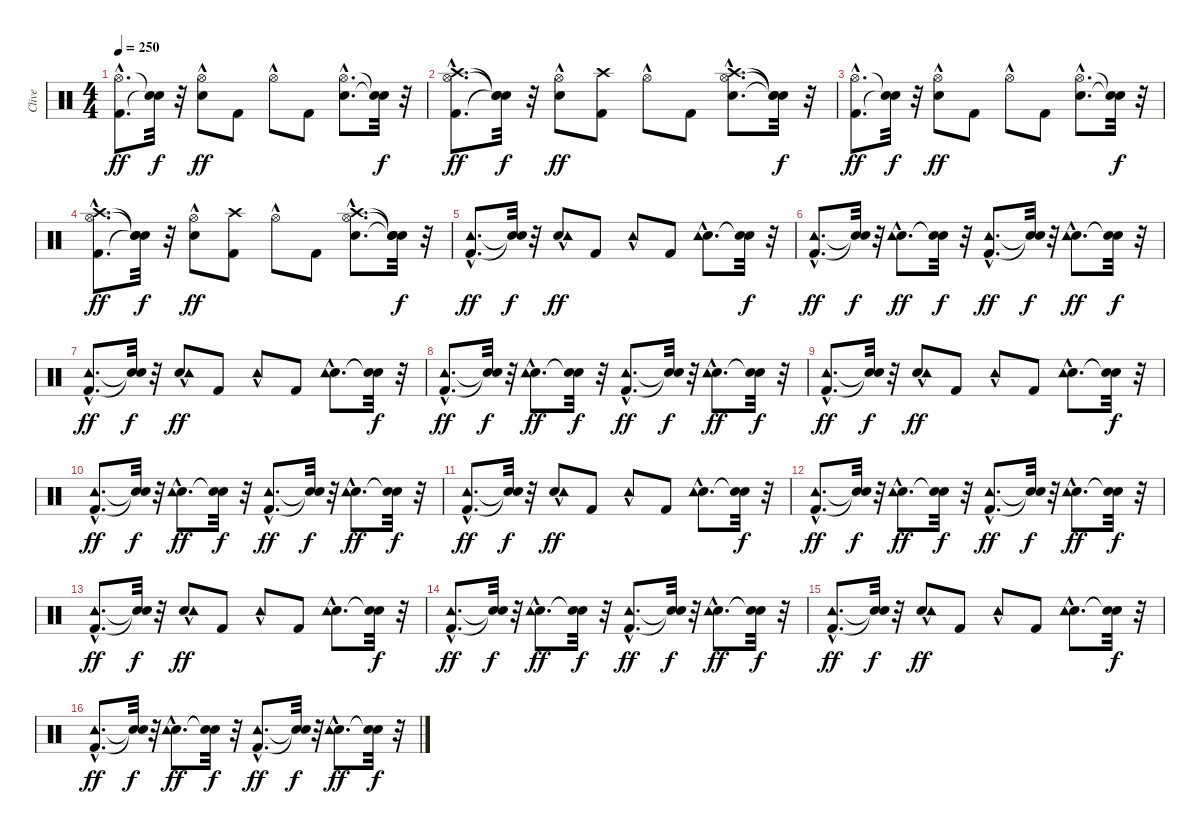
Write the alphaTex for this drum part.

\track ("Clive" "Clive") {instrument percussion}
\staff {score}
\articulation defaults
\ts (4 4)
\tempo 250
\clef neutral
\ks c
("Kick (hit) 2"{hac} "Hi-Hat (open)"{hac}).8{d dy ff} ("Snare (hit)"{t} "Snare (hit)"{t}).32{dy f} r.32 ("Snare (hit) 2" "Hi-Hat (open)"{hac}).8{dy ff} "Kick (hit) 2".8 "Hi-Hat (open)"{hac}.8 "Kick (hit) 2".8 ("Snare (hit) 2"{hac} "Hi-Hat (open)"{hac}).8{d} ("Snare (hit)"{t} "Snare (hit)"{t}).32{dy f} r.32 |
("Kick (hit) 2"{hac} "Hi-Hat (open)"{hac} "Crash high (hit)"{hac}).8{d dy ff} ("Snare (hit)"{t} "Snare (hit)"{t} "Snare (hit)"{t}).32{dy f} r.32 ("Snare (hit) 2" "Hi-Hat (open)"{hac}).8{dy ff} ("Kick (hit) 2" "Crash high (hit)").8 "Hi-Hat (open)"{hac}.8 "Kick (hit) 2".8 ("Snare (hit) 2"{hac} "Hi-Hat (open)"{hac} "Crash high (hit)"{hac}).8{d} ("Snare (hit)"{t} "Snare (hit)"{t} "Snare (hit)"{t}).32{dy f} r.32 |
("Kick (hit) 2"{hac} "Hi-Hat (open)"{hac}).8{d dy ff} ("Snare (hit)"{t} "Snare (hit)"{t}).32{dy f} r.32 ("Snare (hit) 2" "Hi-Hat (open)"{hac}).8{dy ff} "Kick (hit) 2".8 "Hi-Hat (open)"{hac}.8 "Kick (hit) 2".8 ("Snare (hit) 2"{hac} "Hi-Hat (open)"{hac}).8{d} ("Snare (hit)"{t} "Snare (hit)"{t}).32{dy f} r.32 |
("Kick (hit) 2"{hac} "Hi-Hat (open)"{hac} "Crash high (hit)"{hac}).8{d dy ff} ("Snare (hit)"{t} "Snare (hit)"{t} "Snare (hit)"{t}).32{dy f} r.32 ("Snare (hit) 2" "Hi-Hat (open)"{hac}).8{dy ff} ("Kick (hit) 2" "Crash high (hit)").8 "Hi-Hat (open)"{hac}.8 "Kick (hit) 2".8 ("Snare (hit) 2"{hac} "Hi-Hat (open)"{hac} "Crash high (hit)"{hac}).8{d} ("Snare (hit)"{t} "Snare (hit)"{t} "Snare (hit)"{t}).32{dy f} r.32 |
("Kick (hit) 2"{hac} "Tambourine (hit)"{hac}).8{d dy ff} ("Snare (hit)"{t} "Snare (hit)"{t}).32{dy f} r.32 ("Snare (hit) 2" "Tambourine (hit)"{hac}).8{dy ff} "Kick (hit) 2".8 "Tambourine (hit)"{hac}.8 "Kick (hit) 2".8 ("Snare (hit) 2"{hac} "Tambourine (hit)"{hac}).8{d} ("Snare (hit)"{t} "Snare (hit)"{t}).32{dy f} r.32 |
("Kick (hit) 2"{hac} "Tambourine (hit)"{hac}).8{d dy ff} ("Snare (hit)"{t} "Snare (hit)"{t}).32{dy f} r.32 ("Snare (hit) 2"{hac} "Tambourine (hit)"{hac}).8{d dy ff} ("Snare (hit)"{t} "Snare (hit)"{t}).32{dy f} r.32 ("Kick (hit) 2"{hac} "Tambourine (hit)"{hac}).8{d dy ff} ("Snare (hit)"{t} "Snare (hit)"{t}).32{dy f} r.32 ("Snare (hit) 2"{hac} "Tambourine (hit)"{hac}).8{d dy ff} ("Snare (hit)"{t} "Snare (hit)"{t}).32{dy f} r.32 |
("Kick (hit) 2"{hac} "Tambourine (hit)"{hac}).8{d dy ff} ("Snare (hit)"{t} "Snare (hit)"{t}).32{dy f} r.32 ("Snare (hit) 2" "Tambourine (hit)"{hac}).8{dy ff} "Kick (hit) 2".8 "Tambourine (hit)"{hac}.8 "Kick (hit) 2".8 ("Snare (hit) 2"{hac} "Tambourine (hit)"{hac}).8{d} ("Snare (hit)"{t} "Snare (hit)"{t}).32{dy f} r.32 |
("Kick (hit) 2"{hac} "Tambourine (hit)"{hac}).8{d dy ff} ("Snare (hit)"{t} "Snare (hit)"{t}).32{dy f} r.32 ("Snare (hit) 2"{hac} "Tambourine (hit)"{hac}).8{d dy ff} ("Snare (hit)"{t} "Snare (hit)"{t}).32{dy f} r.32 ("Kick (hit) 2"{hac} "Tambourine (hit)"{hac}).8{d dy ff} ("Snare (hit)"{t} "Snare (hit)"{t}).32{dy f} r.32 ("Snare (hit) 2"{hac} "Tambourine (hit)"{hac}).8{d dy ff} ("Snare (hit)"{t} "Snare (hit)"{t}).32{dy f} r.32 |
("Kick (hit) 2"{hac} "Tambourine (hit)"{hac}).8{d dy ff} ("Snare (hit)"{t} "Snare (hit)"{t}).32{dy f} r.32 ("Snare (hit) 2" "Tambourine (hit)"{hac}).8{dy ff} "Kick (hit) 2".8 "Tambourine (hit)"{hac}.8 "Kick (hit) 2".8 ("Snare (hit) 2"{hac} "Tambourine (hit)"{hac}).8{d} ("Snare (hit)"{t} "Snare (hit)"{t}).32{dy f} r.32 |
("Kick (hit) 2"{hac} "Tambourine (hit)"{hac}).8{d dy ff} ("Snare (hit)"{t} "Snare (hit)"{t}).32{dy f} r.32 ("Snare (hit) 2"{hac} "Tambourine (hit)"{hac}).8{d dy ff} ("Snare (hit)"{t} "Snare (hit)"{t}).32{dy f} r.32 ("Kick (hit) 2"{hac} "Tambourine (hit)"{hac}).8{d dy ff} ("Snare (hit)"{t} "Snare (hit)"{t}).32{dy f} r.32 ("Snare (hit) 2"{hac} "Tambourine (hit)"{hac}).8{d dy ff} ("Snare (hit)"{t} "Snare (hit)"{t}).32{dy f} r.32 |
("Kick (hit) 2"{hac} "Tambourine (hit)"{hac}).8{d dy ff} ("Snare (hit)"{t} "Snare (hit)"{t}).32{dy f} r.32 ("Snare (hit) 2" "Tambourine (hit)"{hac}).8{dy ff} "Kick (hit) 2".8 "Tambourine (hit)"{hac}.8 "Kick (hit) 2".8 ("Snare (hit) 2"{hac} "Tambourine (hit)"{hac}).8{d} ("Snare (hit)"{t} "Snare (hit)"{t}).32{dy f} r.32 |
("Kick (hit) 2"{hac} "Tambourine (hit)"{hac}).8{d dy ff} ("Snare (hit)"{t} "Snare (hit)"{t}).32{dy f} r.32 ("Snare (hit) 2"{hac} "Tambourine (hit)"{hac}).8{d dy ff} ("Snare (hit)"{t} "Snare (hit)"{t}).32{dy f} r.32 ("Kick (hit) 2"{hac} "Tambourine (hit)"{hac}).8{d dy ff} ("Snare (hit)"{t} "Snare (hit)"{t}).32{dy f} r.32 ("Snare (hit) 2"{hac} "Tambourine (hit)"{hac}).8{d dy ff} ("Snare (hit)"{t} "Snare (hit)"{t}).32{dy f} r.32 |
("Kick (hit) 2"{hac} "Tambourine (hit)"{hac}).8{d dy ff} ("Snare (hit)"{t} "Snare (hit)"{t}).32{dy f} r.32 ("Snare (hit) 2" "Tambourine (hit)"{hac}).8{dy ff} "Kick (hit) 2".8 "Tambourine (hit)"{hac}.8 "Kick (hit) 2".8 ("Snare (hit) 2"{hac} "Tambourine (hit)"{hac}).8{d} ("Snare (hit)"{t} "Snare (hit)"{t}).32{dy f} r.32 |
("Kick (hit) 2"{hac} "Tambourine (hit)"{hac}).8{d dy ff} ("Snare (hit)"{t} "Snare (hit)"{t}).32{dy f} r.32 ("Snare (hit) 2"{hac} "Tambourine (hit)"{hac}).8{d dy ff} ("Snare (hit)"{t} "Snare (hit)"{t}).32{dy f} r.32 ("Kick (hit) 2"{hac} "Tambourine (hit)"{hac}).8{d dy ff} ("Snare (hit)"{t} "Snare (hit)"{t}).32{dy f} r.32 ("Snare (hit) 2"{hac} "Tambourine (hit)"{hac}).8{d dy ff} ("Snare (hit)"{t} "Snare (hit)"{t}).32{dy f} r.32 |
("Kick (hit) 2"{hac} "Tambourine (hit)"{hac}).8{d dy ff} ("Snare (hit)"{t} "Snare (hit)"{t}).32{dy f} r.32 ("Snare (hit) 2" "Tambourine (hit)"{hac}).8{dy ff} "Kick (hit) 2".8 "Tambourine (hit)"{hac}.8 "Kick (hit) 2".8 ("Snare (hit) 2"{hac} "Tambourine (hit)"{hac}).8{d} ("Snare (hit)"{t} "Snare (hit)"{t}).32{dy f} r.32 |
("Kick (hit) 2"{hac} "Tambourine (hit)"{hac}).8{d dy ff} ("Snare (hit)"{t} "Snare (hit)"{t}).32{dy f} r.32 ("Snare (hit) 2"{hac} "Tambourine (hit)"{hac}).8{d dy ff} ("Snare (hit)"{t} "Snare (hit)"{t}).32{dy f} r.32 ("Kick (hit) 2"{hac} "Tambourine (hit)"{hac}).8{d dy ff} ("Snare (hit)"{t} "Snare (hit)"{t}).32{dy f} r.32 ("Snare (hit) 2"{hac} "Tambourine (hit)"{hac}).8{d dy ff} ("Snare (hit)"{t} "Snare (hit)"{t}).32{dy f} r.32
